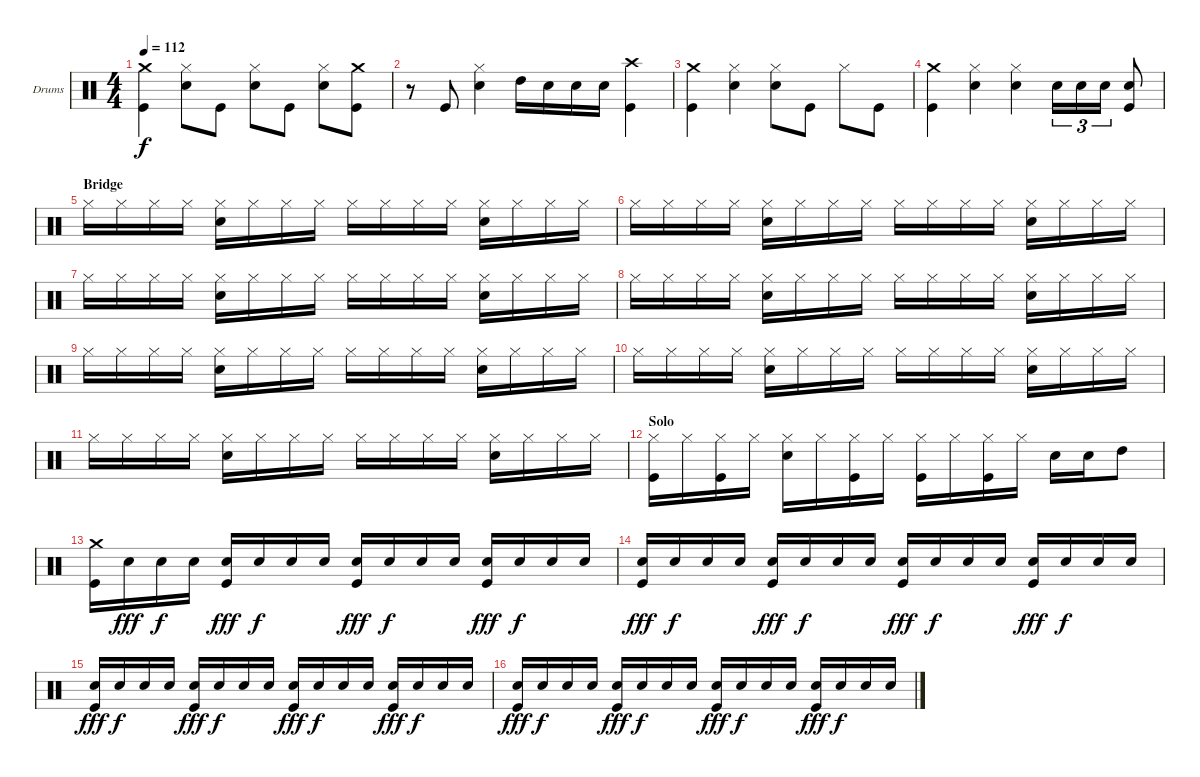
\defaultSystemsLayout 4
\bracketExtendMode groupsimilarinstruments
\firstSystemTrackNameOrientation horizontal
\otherSystemsTrackNameOrientation horizontal
\track ("Drumkit" "Drums") {instrument percussion}
\staff {score}
\articulation defaults
\ts (4 4)
\tempo 112
\clef neutral
\ks c
("Crash medium (hit)" "Kick (hit)").4{dy f} ("Hi-Hat (closed)" "Snare (hit) 2").8 "Kick (hit)".8 ("Hi-Hat (closed)" "Snare (hit) 2").8 "Kick (hit)".8 ("Hi-Hat (closed)" "Snare (hit) 2").8 ("Crash medium (hit)" "Kick (hit)").8 |
r.8 "Kick (hit)".8 ("Hi-Hat (closed)" "Snare (hit) 2").4 "High Tom (hit)".16 "Snare (hit) 2".16 "Snare (hit) 2".16 "Snare (hit) 2".16 ("Crash high (hit)" "Kick (hit)").4 |
("Crash medium (hit)" "Kick (hit)").4 ("Hi-Hat (closed)" "Snare (hit) 2").4 ("Hi-Hat (closed)" "Snare (hit) 2").8 "Kick (hit)".8 "Hi-Hat (closed)".8 "Kick (hit)".8 |
("Crash medium (hit)" "Kick (hit)").4 ("Hi-Hat (closed)" "Snare (hit) 2").4 ("Hi-Hat (closed)" "Snare (hit) 2").4 "Snare (hit) 2".16{tu (3 2)} "Snare (hit) 2".16{tu (3 2)} "Snare (hit) 2".16{tu (3 2)} ("Snare (hit) 2" "Kick (hit)").8 |
\section ("" "Bridge")
"Hi-Hat (closed)".16 "Hi-Hat (closed)".16 "Hi-Hat (closed)".16 "Hi-Hat (closed)".16 ("Hi-Hat (closed)" "Snare (hit) 2").16 "Hi-Hat (closed)".16 "Hi-Hat (closed)".16 "Hi-Hat (closed)".16 "Hi-Hat (closed)".16 "Hi-Hat (closed)".16 "Hi-Hat (closed)".16 "Hi-Hat (closed)".16 ("Hi-Hat (closed)" "Snare (hit) 2").16 "Hi-Hat (closed)".16 "Hi-Hat (closed)".16 "Hi-Hat (closed)".16 |
"Hi-Hat (closed)".16 "Hi-Hat (closed)".16 "Hi-Hat (closed)".16 "Hi-Hat (closed)".16 ("Hi-Hat (closed)" "Snare (hit) 2").16 "Hi-Hat (closed)".16 "Hi-Hat (closed)".16 "Hi-Hat (closed)".16 "Hi-Hat (closed)".16 "Hi-Hat (closed)".16 "Hi-Hat (closed)".16 "Hi-Hat (closed)".16 ("Hi-Hat (closed)" "Snare (hit) 2").16 "Hi-Hat (closed)".16 "Hi-Hat (closed)".16 "Hi-Hat (closed)".16 |
"Hi-Hat (closed)".16 "Hi-Hat (closed)".16 "Hi-Hat (closed)".16 "Hi-Hat (closed)".16 ("Hi-Hat (closed)" "Snare (hit) 2").16 "Hi-Hat (closed)".16 "Hi-Hat (closed)".16 "Hi-Hat (closed)".16 "Hi-Hat (closed)".16 "Hi-Hat (closed)".16 "Hi-Hat (closed)".16 "Hi-Hat (closed)".16 ("Hi-Hat (closed)" "Snare (hit) 2").16 "Hi-Hat (closed)".16 "Hi-Hat (closed)".16 "Hi-Hat (closed)".16 |
"Hi-Hat (closed)".16 "Hi-Hat (closed)".16 "Hi-Hat (closed)".16 "Hi-Hat (closed)".16 ("Hi-Hat (closed)" "Snare (hit) 2").16 "Hi-Hat (closed)".16 "Hi-Hat (closed)".16 "Hi-Hat (closed)".16 "Hi-Hat (closed)".16 "Hi-Hat (closed)".16 "Hi-Hat (closed)".16 "Hi-Hat (closed)".16 ("Hi-Hat (closed)" "Snare (hit) 2").16 "Hi-Hat (closed)".16 "Hi-Hat (closed)".16 "Hi-Hat (closed)".16 |
"Hi-Hat (closed)".16 "Hi-Hat (closed)".16 "Hi-Hat (closed)".16 "Hi-Hat (closed)".16 ("Hi-Hat (closed)" "Snare (hit) 2").16 "Hi-Hat (closed)".16 "Hi-Hat (closed)".16 "Hi-Hat (closed)".16 "Hi-Hat (closed)".16 "Hi-Hat (closed)".16 "Hi-Hat (closed)".16 "Hi-Hat (closed)".16 ("Hi-Hat (closed)" "Snare (hit) 2").16 "Hi-Hat (closed)".16 "Hi-Hat (closed)".16 "Hi-Hat (closed)".16 |
"Hi-Hat (closed)".16 "Hi-Hat (closed)".16 "Hi-Hat (closed)".16 "Hi-Hat (closed)".16 ("Hi-Hat (closed)" "Snare (hit) 2").16 "Hi-Hat (closed)".16 "Hi-Hat (closed)".16 "Hi-Hat (closed)".16 "Hi-Hat (closed)".16 "Hi-Hat (closed)".16 "Hi-Hat (closed)".16 "Hi-Hat (closed)".16 ("Hi-Hat (closed)" "Snare (hit) 2").16 "Hi-Hat (closed)".16 "Hi-Hat (closed)".16 "Hi-Hat (closed)".16 |
"Hi-Hat (closed)".16 "Hi-Hat (closed)".16 "Hi-Hat (closed)".16 "Hi-Hat (closed)".16 ("Hi-Hat (closed)" "Snare (hit) 2").16 "Hi-Hat (closed)".16 "Hi-Hat (closed)".16 "Hi-Hat (closed)".16 "Hi-Hat (closed)".16 "Hi-Hat (closed)".16 "Hi-Hat (closed)".16 "Hi-Hat (closed)".16 ("Hi-Hat (closed)" "Snare (hit) 2").16 "Hi-Hat (closed)".16 "Hi-Hat (closed)".16 "Hi-Hat (closed)".16 |
\section ("" "Solo")
("Hi-Hat (closed)" "Kick (hit)").16 "Hi-Hat (closed)".16 ("Hi-Hat (closed)" "Kick (hit)").16 "Hi-Hat (closed)".16 ("Hi-Hat (closed)" "Snare (hit) 2").16 "Hi-Hat (closed)".16 ("Hi-Hat (closed)" "Kick (hit)").16 "Hi-Hat (closed)".16 ("Hi-Hat (closed)" "Kick (hit)").16 "Hi-Hat (closed)".16 ("Hi-Hat (closed)" "Kick (hit)").16 "Hi-Hat (closed)".16 "Snare (hit) 2".16 "Snare (hit) 2".16 "High Tom (hit)".8 |
("Crash medium (hit)" "Kick (hit)").16 "Snare (hit) 2".16{dy fff} "Snare (hit) 2".16{dy f} "Snare (hit) 2".16 ("Snare (hit) 2" "Kick (hit)").16{dy fff} "Snare (hit) 2".16{dy f} "Snare (hit) 2".16 "Snare (hit) 2".16 ("Snare (hit) 2" "Kick (hit)").16{dy fff} "Snare (hit) 2".16{dy f} "Snare (hit) 2".16 "Snare (hit) 2".16 ("Snare (hit) 2" "Kick (hit)").16{dy fff} "Snare (hit) 2".16{dy f} "Snare (hit) 2".16 "Snare (hit) 2".16 |
("Snare (hit) 2" "Kick (hit)").16{dy fff} "Snare (hit) 2".16{dy f} "Snare (hit) 2".16 "Snare (hit) 2".16 ("Snare (hit) 2" "Kick (hit)").16{dy fff} "Snare (hit) 2".16{dy f} "Snare (hit) 2".16 "Snare (hit) 2".16 ("Snare (hit) 2" "Kick (hit)").16{dy fff} "Snare (hit) 2".16{dy f} "Snare (hit) 2".16 "Snare (hit) 2".16 ("Snare (hit) 2" "Kick (hit)").16{dy fff} "Snare (hit) 2".16{dy f} "Snare (hit) 2".16 "Snare (hit) 2".16 |
("Snare (hit) 2" "Kick (hit)").16{dy fff} "Snare (hit) 2".16{dy f} "Snare (hit) 2".16 "Snare (hit) 2".16 ("Snare (hit) 2" "Kick (hit)").16{dy fff} "Snare (hit) 2".16{dy f} "Snare (hit) 2".16 "Snare (hit) 2".16 ("Snare (hit) 2" "Kick (hit)").16{dy fff} "Snare (hit) 2".16{dy f} "Snare (hit) 2".16 "Snare (hit) 2".16 ("Snare (hit) 2" "Kick (hit)").16{dy fff} "Snare (hit) 2".16{dy f} "Snare (hit) 2".16 "Snare (hit) 2".16 |
("Snare (hit) 2" "Kick (hit)").16{dy fff} "Snare (hit) 2".16{dy f} "Snare (hit) 2".16 "Snare (hit) 2".16 ("Snare (hit) 2" "Kick (hit)").16{dy fff} "Snare (hit) 2".16{dy f} "Snare (hit) 2".16 "Snare (hit) 2".16 ("Snare (hit) 2" "Kick (hit)").16{dy fff} "Snare (hit) 2".16{dy f} "Snare (hit) 2".16 "Snare (hit) 2".16 ("Snare (hit) 2" "Kick (hit)").16{dy fff} "Snare (hit) 2".16{dy f} "Snare (hit) 2".16 "Snare (hit) 2".16
